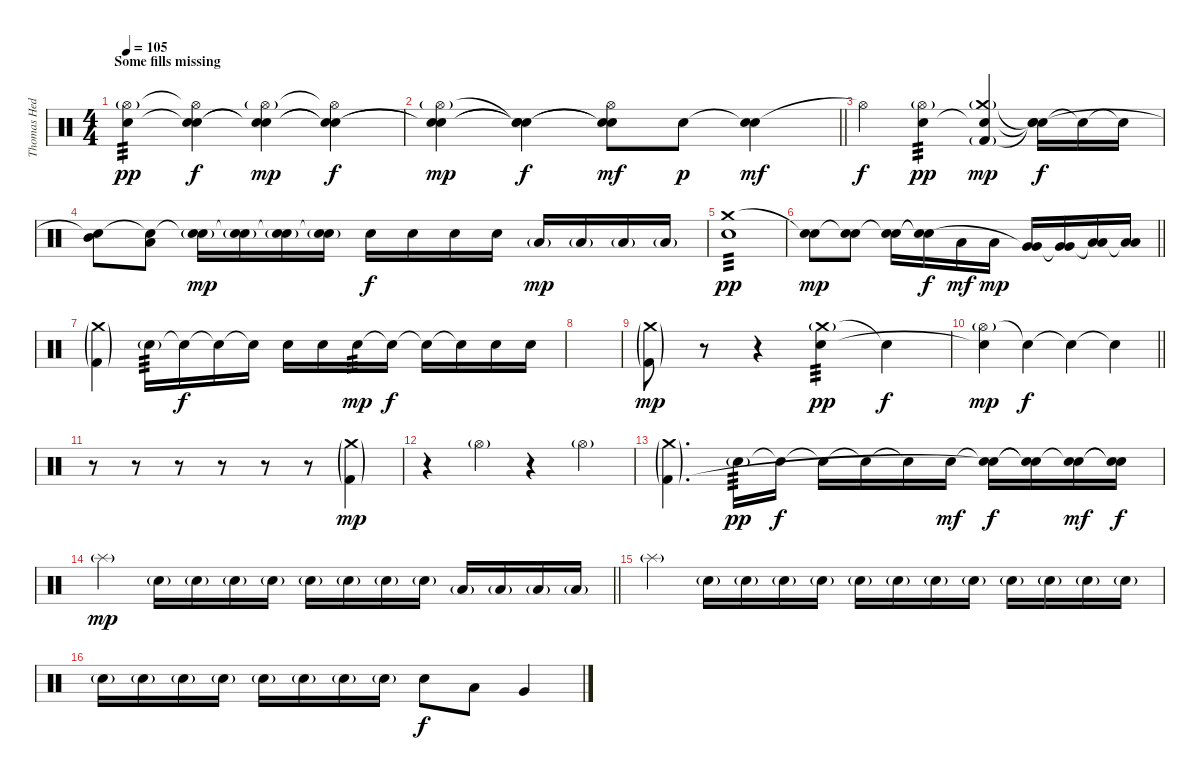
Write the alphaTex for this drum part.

\track ("Thomas Hedlund" "Thomas Hed") {instrument percussion}
\staff {score}
\articulation defaults
\ts (4 4)
\section ("" "Some fills missing")
\tempo 105
\clef neutral
\ks c
("Hi-Hat (open)"{g} "Snare (hit) 2").4{tp 3 dy pp} ("Hi-Hat (open)"{t} "Snare (hit)"{t} "Snare (hit)"{t}).4{dy f} ("Hi-Hat (open)"{g} "Snare (hit)"{t} "Snare (hit)"{t}).4{dy mp} ("Hi-Hat (open)"{t} "Snare (hit)"{t} "Snare (hit)"{t}).4{dy f} |
\barLineRight lightlight
("Hi-Hat (open)"{g} "Snare (hit)"{t} "Snare (hit) 2"{t}).4{dy mp} ("Snare (hit)"{t} "Snare (hit)"{t} "Snare (hit)"{t}).4{dy f} ("Hi-Hat (open)" "Snare (hit)"{t} "Snare (hit)"{t}).8{dy mf} "Snare (hit) 2".8{dy p} ("Snare (hit)"{t} "Snare (hit) 2").4{dy mf} |
"Hi-Hat (open)"{t}.4{dy f} ("Hi-Hat (open)"{g} "Snare (hit) 2").4{tp 3 dy pp} ("Crash medium (hit)"{g} "Snare (hit)"{t} "Kick (hit) 2"{g}).4{dy mp} ("Snare (hit)"{t} "Snare (hit)"{t} "Snare (hit)"{t}).16{dy f} "Snare (hit)"{t}.16 "Snare (hit)"{t}.16 |
("Mid Tom (hit)" "Snare (hit)"{t}).8 ("Low Tom (hit)" "Snare (hit)"{t}).8 ("Snare (hit) 2"{g} "Snare (hit)"{t}).16{dy mp} ("Snare (hit) 2"{g} "Snare (hit)"{t}).16 ("Snare (hit) 2"{g} "Snare (hit)"{t}).16 ("Snare (hit) 2"{g} "Snare (hit)"{t}).16 "Snare (hit) 2".16{dy f} "Snare (hit) 2".16 "Snare (hit) 2".16 "Snare (hit) 2".16 "Low Tom (hit)"{g}.16{dy mp} "Low Tom (hit)"{g}.16 "Low Tom (hit)"{g}.16 "Low Tom (hit)"{g}.16 |
("Crash medium (hit)" "Snare (hit) 2").1{tp 3 dy pp} |
\barLineRight lightlight
("Snare (hit) 2"{t} "Snare (hit) 2").8{dy mp} ("Snare (hit)"{t} "Snare (hit) 2").8 ("Snare (hit)"{t} "Snare (hit) 2").16 ("Snare (hit)"{t} "Snare (hit)"{t}).16{dy f} "Low Tom (hit)".16{dy mf} "Low Tom (hit)".16{dy mp} ("Very Low Tom (hit)" "Very Low Tom (hit)"{t}).16 ("Very Low Tom (hit)" "Very Low Tom (hit)"{t}).16 ("Low Floor Tom (hit)" "Low Floor Tom (hit)"{t}).16 ("Low Floor Tom (hit)" "Low Floor Tom (hit)"{t}).16 |
("Crash medium (hit)"{g} "Kick (hit) 2"{g}).4 "Snare (hit) 2"{g}.16{tp 3} "Snare (hit) 2"{t}.16{dy f} "Snare (hit) 2"{t}.16 "Snare (hit) 2"{t}.16 "Snare (hit) 2".16 "Snare (hit) 2".16 "Snare (hit) 2".16{tp 3 dy mp} "Snare (hit) 2"{t}.16{dy f} "Snare (hit) 2"{t}.16 "Snare (hit) 2"{t}.16 "Snare (hit) 2".16 "Snare (hit) 2".16 |
|
("Crash medium (hit)"{g} "Kick (hit) 2"{g}).8{dy mp} r.8 r.4 ("Crash medium (hit)"{g} "Snare (hit) 2").4{tp 3 dy pp} "Snare (hit)"{t}.4{dy f} |
\barLineRight lightlight
("Hi-Hat (open)"{g} "Snare (hit)"{t}).4{dy mp} "Snare (hit)"{t}.4{dy f} "Snare (hit)"{t}.4 "Snare (hit)"{t}.4 |
r.8 r.8 r.8 r.8 r.8 r.8 ("Crash medium (hit)"{g} "Kick (hit) 2"{g}).4{dy mp} |
r.4 "Hi-Hat (open)"{g}.4 r.4 "Hi-Hat (open)"{g}.4 |
("Crash medium (hit)"{g} "Kick (hit) 2"{g}).4{d} "Snare (hit) 2"{g}.16{tp 3 dy pp} "Snare (hit) 2"{t}.16{dy f} "Snare (hit) 2"{t}.16 "Snare (hit) 2"{t}.16 "Snare (hit) 2"{t}.16 "Snare (hit) 2".16{dy mf} ("Snare (hit) 2"{t} "Snare (hit)"{t}).16{dy f} ("Snare (hit) 2"{t} "Snare (hit)"{t}).16 ("Snare (hit) 2"{t} "Snare (hit) 2").16{dy mf} ("Snare (hit) 2"{t} "Snare (hit)"{t}).16{dy f} |
\barLineRight lightlight "Splash (hit)"{g}.4{dy mp} "Snare (hit) 2"{g}.16 "Snare (hit) 2"{g}.16 "Snare (hit) 2"{g}.16 "Snare (hit) 2"{g}.16 "Snare (hit) 2"{g}.16 "Snare (hit) 2"{g}.16 "Snare (hit) 2"{g}.16 "Snare (hit) 2"{g}.16 "Low Tom (hit)"{g}.16 "Low Tom (hit)"{g}.16 "Low Tom (hit)"{g}.16 "Low Tom (hit)"{g}.16
|
"Splash (hit)"{g}.4 "Snare (hit) 2"{g}.16 "Snare (hit) 2"{g}.16 "Snare (hit) 2"{g}.16 "Snare (hit) 2"{g}.16 "Snare (hit) 2"{g}.16 "Snare (hit) 2"{g}.16 "Snare (hit) 2"{g}.16 "Snare (hit) 2"{g}.16 "Snare (hit) 2"{g}.16 "Snare (hit) 2"{g}.16 "Snare (hit) 2"{g}.16 "Snare (hit) 2"{g}.16 |
"Snare (hit) 2"{g}.16 "Snare (hit) 2"{g}.16 "Snare (hit) 2"{g}.16 "Snare (hit) 2"{g}.16 "Snare (hit) 2"{g}.16 "Snare (hit) 2"{g}.16 "Snare (hit) 2"{g}.16 "Snare (hit) 2"{g}.16 "Snare (hit) 2".8{dy f} "Low Tom (hit)".8 "Very Low Tom (hit)".4
